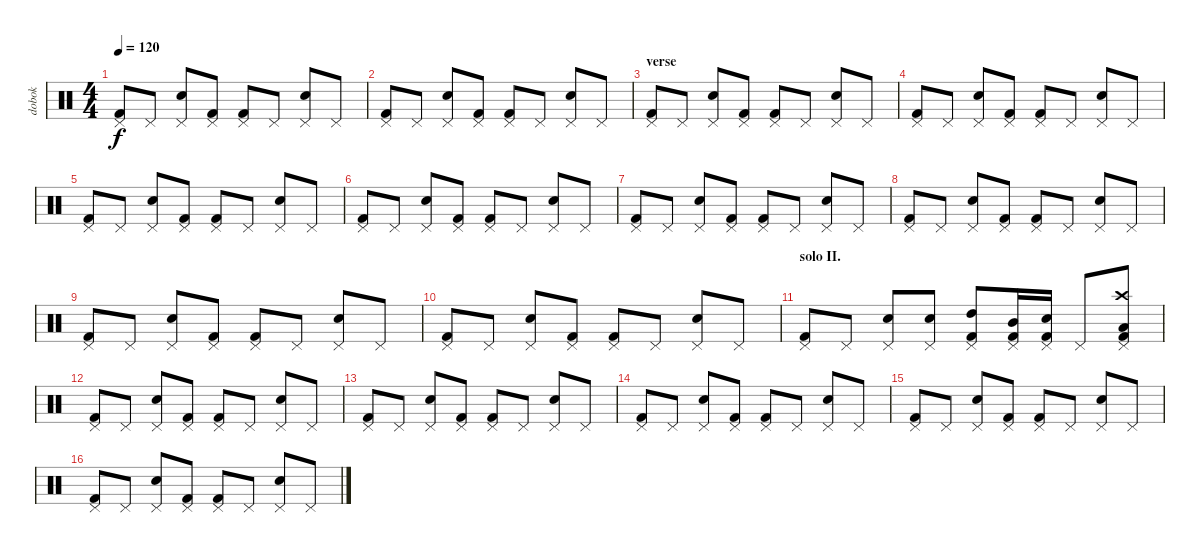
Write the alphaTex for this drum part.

\track ("dobok" "dobok") {instrument percussion}
\staff {score}
\articulation defaults
\ts (4 4)
\tempo 120
\clef neutral
\ks c
("Pedal Hi-Hat (hit)" "Kick (hit) 2").8{dy f} "Pedal Hi-Hat (hit)".8 ("Pedal Hi-Hat (hit)" "Snare (hit) 2").8 ("Pedal Hi-Hat (hit)" "Kick (hit) 2").8 ("Pedal Hi-Hat (hit)" "Kick (hit) 2").8 "Pedal Hi-Hat (hit)".8 ("Pedal Hi-Hat (hit)" "Snare (hit) 2").8 "Pedal Hi-Hat (hit)".8 |
("Pedal Hi-Hat (hit)" "Kick (hit) 2").8 "Pedal Hi-Hat (hit)".8 ("Pedal Hi-Hat (hit)" "Snare (hit) 2").8 ("Pedal Hi-Hat (hit)" "Kick (hit) 2").8 ("Pedal Hi-Hat (hit)" "Kick (hit) 2").8 "Pedal Hi-Hat (hit)".8 ("Pedal Hi-Hat (hit)" "Snare (hit) 2").8 "Pedal Hi-Hat (hit)".8 |
\section ("" "verse")
("Pedal Hi-Hat (hit)" "Kick (hit) 2").8 "Pedal Hi-Hat (hit)".8 ("Pedal Hi-Hat (hit)" "Snare (hit) 2").8 ("Pedal Hi-Hat (hit)" "Kick (hit) 2").8 ("Pedal Hi-Hat (hit)" "Kick (hit) 2").8 "Pedal Hi-Hat (hit)".8 ("Pedal Hi-Hat (hit)" "Snare (hit) 2").8 "Pedal Hi-Hat (hit)".8 |
("Pedal Hi-Hat (hit)" "Kick (hit) 2").8 "Pedal Hi-Hat (hit)".8 ("Pedal Hi-Hat (hit)" "Snare (hit) 2").8 ("Pedal Hi-Hat (hit)" "Kick (hit) 2").8 ("Pedal Hi-Hat (hit)" "Kick (hit) 2").8 "Pedal Hi-Hat (hit)".8 ("Pedal Hi-Hat (hit)" "Snare (hit) 2").8 "Pedal Hi-Hat (hit)".8 |
("Pedal Hi-Hat (hit)" "Kick (hit) 2").8 "Pedal Hi-Hat (hit)".8 ("Pedal Hi-Hat (hit)" "Snare (hit) 2").8 ("Pedal Hi-Hat (hit)" "Kick (hit) 2").8 ("Pedal Hi-Hat (hit)" "Kick (hit) 2").8 "Pedal Hi-Hat (hit)".8 ("Pedal Hi-Hat (hit)" "Snare (hit) 2").8 "Pedal Hi-Hat (hit)".8 |
("Pedal Hi-Hat (hit)" "Kick (hit) 2").8 "Pedal Hi-Hat (hit)".8 ("Pedal Hi-Hat (hit)" "Snare (hit) 2").8 ("Pedal Hi-Hat (hit)" "Kick (hit) 2").8 ("Pedal Hi-Hat (hit)" "Kick (hit) 2").8 "Pedal Hi-Hat (hit)".8 ("Pedal Hi-Hat (hit)" "Snare (hit) 2").8 "Pedal Hi-Hat (hit)".8 |
("Pedal Hi-Hat (hit)" "Kick (hit) 2").8 "Pedal Hi-Hat (hit)".8 ("Pedal Hi-Hat (hit)" "Snare (hit) 2").8 ("Pedal Hi-Hat (hit)" "Kick (hit) 2").8 ("Pedal Hi-Hat (hit)" "Kick (hit) 2").8 "Pedal Hi-Hat (hit)".8 ("Pedal Hi-Hat (hit)" "Snare (hit) 2").8 "Pedal Hi-Hat (hit)".8 |
("Pedal Hi-Hat (hit)" "Kick (hit) 2").8 "Pedal Hi-Hat (hit)".8 ("Pedal Hi-Hat (hit)" "Snare (hit) 2").8 ("Pedal Hi-Hat (hit)" "Kick (hit) 2").8 ("Pedal Hi-Hat (hit)" "Kick (hit) 2").8 "Pedal Hi-Hat (hit)".8 ("Pedal Hi-Hat (hit)" "Snare (hit) 2").8 "Pedal Hi-Hat (hit)".8 |
("Pedal Hi-Hat (hit)" "Kick (hit) 2").8 "Pedal Hi-Hat (hit)".8 ("Pedal Hi-Hat (hit)" "Snare (hit) 2").8 ("Pedal Hi-Hat (hit)" "Kick (hit) 2").8 ("Pedal Hi-Hat (hit)" "Kick (hit) 2").8 "Pedal Hi-Hat (hit)".8 ("Pedal Hi-Hat (hit)" "Snare (hit) 2").8 "Pedal Hi-Hat (hit)".8 |
("Pedal Hi-Hat (hit)" "Kick (hit) 2").8 "Pedal Hi-Hat (hit)".8 ("Pedal Hi-Hat (hit)" "Snare (hit) 2").8 ("Pedal Hi-Hat (hit)" "Kick (hit) 2").8 ("Pedal Hi-Hat (hit)" "Kick (hit) 2").8 "Pedal Hi-Hat (hit)".8 ("Pedal Hi-Hat (hit)" "Snare (hit) 2").8 "Pedal Hi-Hat (hit)".8 |
\section ("" "solo II.")
("Pedal Hi-Hat (hit)" "Kick (hit) 2").8 "Pedal Hi-Hat (hit)".8 ("Pedal Hi-Hat (hit)" "Snare (hit) 2").8 ("Pedal Hi-Hat (hit)" "Snare (hit) 2").8 ("Pedal Hi-Hat (hit)" "High Tom (hit)" "Kick (hit) 2").8 ("Pedal Hi-Hat (hit)" "Mid Tom (hit)" "Kick (hit) 2").16 ("Pedal Hi-Hat (hit)" "Snare (hit) 2" "Kick (hit) 2").16 "Pedal Hi-Hat (hit)".8 ("Crash high (hit)" "Pedal Hi-Hat (hit)" "Low Tom (hit)" "Kick (hit) 2").8 |
("Pedal Hi-Hat (hit)" "Kick (hit) 2").8 "Pedal Hi-Hat (hit)".8 ("Pedal Hi-Hat (hit)" "Snare (hit) 2").8 ("Pedal Hi-Hat (hit)" "Kick (hit) 2").8 ("Pedal Hi-Hat (hit)" "Kick (hit) 2").8 "Pedal Hi-Hat (hit)".8 ("Pedal Hi-Hat (hit)" "Snare (hit) 2").8 "Pedal Hi-Hat (hit)".8 |
("Pedal Hi-Hat (hit)" "Kick (hit) 2").8 "Pedal Hi-Hat (hit)".8 ("Pedal Hi-Hat (hit)" "Snare (hit) 2").8 ("Pedal Hi-Hat (hit)" "Kick (hit) 2").8 ("Pedal Hi-Hat (hit)" "Kick (hit) 2").8 "Pedal Hi-Hat (hit)".8 ("Pedal Hi-Hat (hit)" "Snare (hit) 2").8 "Pedal Hi-Hat (hit)".8 |
("Pedal Hi-Hat (hit)" "Kick (hit) 2").8 "Pedal Hi-Hat (hit)".8 ("Pedal Hi-Hat (hit)" "Snare (hit) 2").8 ("Pedal Hi-Hat (hit)" "Kick (hit) 2").8 ("Pedal Hi-Hat (hit)" "Kick (hit) 2").8 "Pedal Hi-Hat (hit)".8 ("Pedal Hi-Hat (hit)" "Snare (hit) 2").8 "Pedal Hi-Hat (hit)".8 |
("Pedal Hi-Hat (hit)" "Kick (hit) 2").8 "Pedal Hi-Hat (hit)".8 ("Pedal Hi-Hat (hit)" "Snare (hit) 2").8 ("Pedal Hi-Hat (hit)" "Kick (hit) 2").8 ("Pedal Hi-Hat (hit)" "Kick (hit) 2").8 "Pedal Hi-Hat (hit)".8 ("Pedal Hi-Hat (hit)" "Snare (hit) 2").8 "Pedal Hi-Hat (hit)".8 |
("Pedal Hi-Hat (hit)" "Kick (hit) 2").8 "Pedal Hi-Hat (hit)".8 ("Pedal Hi-Hat (hit)" "Snare (hit) 2").8 ("Pedal Hi-Hat (hit)" "Kick (hit) 2").8 ("Pedal Hi-Hat (hit)" "Kick (hit) 2").8 "Pedal Hi-Hat (hit)".8 ("Pedal Hi-Hat (hit)" "Snare (hit) 2").8 "Pedal Hi-Hat (hit)".8
